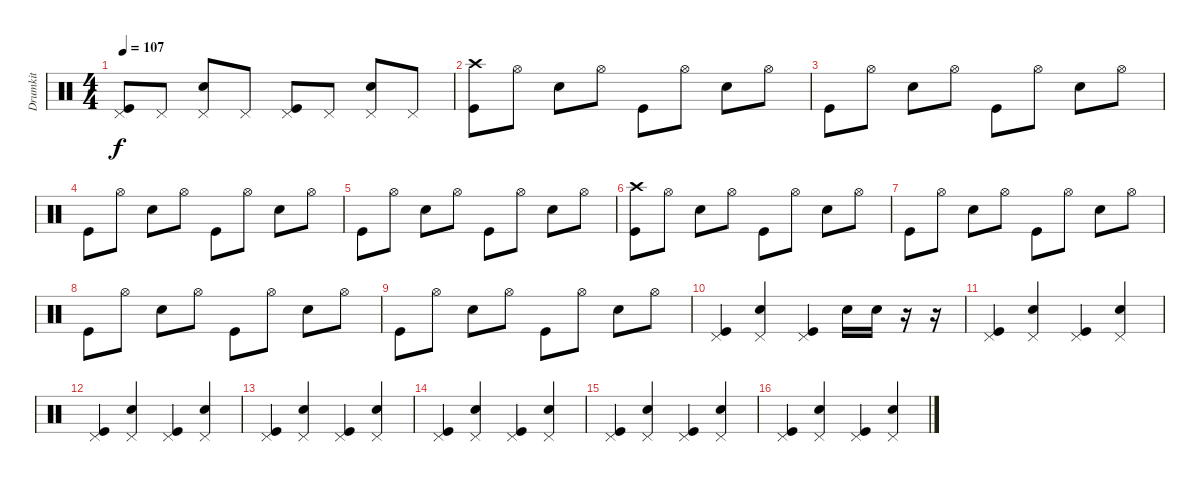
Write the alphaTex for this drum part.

\track ("Drumkit" "Drumkit") {instrument percussion}
\staff {score}
\articulation defaults
\ts (4 4)
\tempo 107
\clef neutral
\ks c
("Pedal Hi-Hat (hit)" "Kick (hit)").8{dy f} "Pedal Hi-Hat (hit)".8 ("Pedal Hi-Hat (hit)" "Snare (hit) 2").8 "Pedal Hi-Hat (hit)".8 ("Pedal Hi-Hat (hit)" "Kick (hit)").8 "Pedal Hi-Hat (hit)".8 ("Pedal Hi-Hat (hit)" "Snare (hit) 2").8 "Pedal Hi-Hat (hit)".8 |
("Kick (hit)" "Crash high (hit)").8 "Hi-Hat (open)".8 "Snare (hit) 2".8 "Hi-Hat (open)".8 "Kick (hit)".8 "Hi-Hat (open)".8 "Snare (hit) 2".8 "Hi-Hat (open)".8 |
"Kick (hit)".8 "Hi-Hat (open)".8 "Snare (hit) 2".8 "Hi-Hat (open)".8 "Kick (hit)".8 "Hi-Hat (open)".8 "Snare (hit) 2".8 "Hi-Hat (open)".8 |
"Kick (hit)".8 "Hi-Hat (open)".8 "Snare (hit) 2".8 "Hi-Hat (open)".8 "Kick (hit)".8 "Hi-Hat (open)".8 "Snare (hit) 2".8 "Hi-Hat (open)".8 |
"Kick (hit)".8 "Hi-Hat (open)".8 "Snare (hit) 2".8 "Hi-Hat (open)".8 "Kick (hit)".8 "Hi-Hat (open)".8 "Snare (hit) 2".8 "Hi-Hat (open)".8 |
("Kick (hit)" "Crash high (hit)").8 "Hi-Hat (open)".8 "Snare (hit) 2".8 "Hi-Hat (open)".8 "Kick (hit)".8 "Hi-Hat (open)".8 "Snare (hit) 2".8 "Hi-Hat (open)".8 |
"Kick (hit)".8 "Hi-Hat (open)".8 "Snare (hit) 2".8 "Hi-Hat (open)".8 "Kick (hit)".8 "Hi-Hat (open)".8 "Snare (hit) 2".8 "Hi-Hat (open)".8 |
"Kick (hit)".8 "Hi-Hat (open)".8 "Snare (hit) 2".8 "Hi-Hat (open)".8 "Kick (hit)".8 "Hi-Hat (open)".8 "Snare (hit) 2".8 "Hi-Hat (open)".8 |
"Kick (hit)".8 "Hi-Hat (open)".8 "Snare (hit) 2".8 "Hi-Hat (open)".8 "Kick (hit)".8 "Hi-Hat (open)".8 "Snare (hit) 2".8 "Hi-Hat (open)".8 |
("Pedal Hi-Hat (hit)" "Kick (hit)").4 ("Pedal Hi-Hat (hit)" "Snare (hit) 2").4 ("Pedal Hi-Hat (hit)" "Kick (hit)").4 "Snare (hit) 2".16 "Snare (hit) 2".16 r.16 r.16 |
("Pedal Hi-Hat (hit)" "Kick (hit)").4 ("Pedal Hi-Hat (hit)" "Snare (hit) 2").4 ("Pedal Hi-Hat (hit)" "Kick (hit)").4 ("Pedal Hi-Hat (hit)" "Snare (hit) 2").4 |
("Pedal Hi-Hat (hit)" "Kick (hit)").4 ("Pedal Hi-Hat (hit)" "Snare (hit) 2").4 ("Pedal Hi-Hat (hit)" "Kick (hit)").4 ("Pedal Hi-Hat (hit)" "Snare (hit) 2").4 |
("Pedal Hi-Hat (hit)" "Kick (hit)").4 ("Pedal Hi-Hat (hit)" "Snare (hit) 2").4 ("Pedal Hi-Hat (hit)" "Kick (hit)").4 ("Pedal Hi-Hat (hit)" "Snare (hit) 2").4 |
("Pedal Hi-Hat (hit)" "Kick (hit)").4 ("Pedal Hi-Hat (hit)" "Snare (hit) 2").4 ("Pedal Hi-Hat (hit)" "Kick (hit)").4 ("Pedal Hi-Hat (hit)" "Snare (hit) 2").4 |
("Pedal Hi-Hat (hit)" "Kick (hit)").4 ("Pedal Hi-Hat (hit)" "Snare (hit) 2").4 ("Pedal Hi-Hat (hit)" "Kick (hit)").4 ("Pedal Hi-Hat (hit)" "Snare (hit) 2").4 |
("Pedal Hi-Hat (hit)" "Kick (hit)").4 ("Pedal Hi-Hat (hit)" "Snare (hit) 2").4 ("Pedal Hi-Hat (hit)" "Kick (hit)").4 ("Pedal Hi-Hat (hit)" "Snare (hit) 2").4
